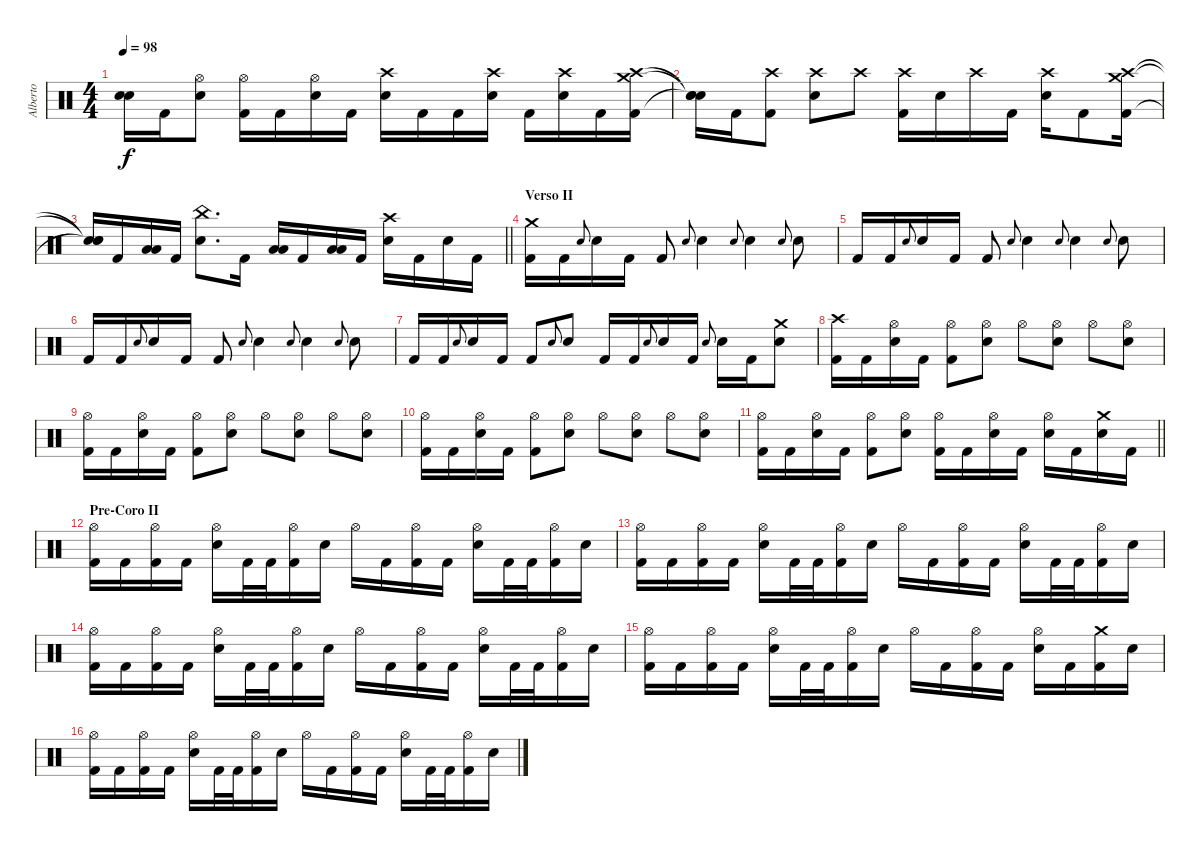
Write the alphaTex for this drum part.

\track ("Alberto" "Alberto") {instrument percussion}
\staff
\articulation defaults
\ts (4 4)
\tempo 98
\clef neutral
\ks c
("Snare (hit)"{t} "Snare (hit)"{t}).16{dy f} "Kick (hit) 2".16 ("Hi-Hat (open)" "Electric Snare (hit)").8 ("Hi-Hat (open)" "Kick (hit) 2").16 "Kick (hit) 2".16 ("Hi-Hat (open)" "Electric Snare (hit)").16 "Kick (hit) 2".16 ("Crash high (hit)" "Electric Snare (hit)").16 "Kick (hit) 2".16 "Kick (hit) 2".16 ("Crash high (hit)" "Electric Snare (hit)").16 "Kick (hit) 2".16 ("Crash high (hit)" "Electric Snare (hit)").16 "Kick (hit) 2".16 ("Crash medium (hit)" "Crash high (hit)" "Kick (hit) 2").16 |
("Snare (hit)"{t} "Snare (hit)"{t} "Snare (hit)"{t}).16 "Kick (hit) 2".16 ("Crash high (hit)" "Kick (hit) 2").8 ("Crash high (hit)" "Electric Snare (hit)").8 "Crash high (hit)".8 ("Crash high (hit)" "Kick (hit) 2").16 "Electric Snare (hit)".16 "Crash high (hit)".16 "Kick (hit) 2".16 ("Crash high (hit)" "Electric Snare (hit)").16 "Kick (hit) 2".8 ("Crash medium (hit)" "Crash high (hit)" "Kick (hit) 2").16 |
\barLineRight lightlight
("Snare (hit)"{t} "Snare (hit)"{t} "Snare (hit)"{t}).16 "Kick (hit) 2".16 ("Low Tom (hit)" "Low Floor Tom (hit)").16 "Kick (hit) 2".16 ("China (hit)" "Electric Snare (hit)").8{d} "Kick (hit) 2".16 ("Low Tom (hit)" "Low Floor Tom (hit)").16 "Kick (hit) 2".16 ("Low Tom (hit)" "Low Floor Tom (hit)").16 "Kick (hit) 2".16 ("Crash high (hit)" "Electric Snare (hit)").16 "Kick (hit) 2".16 "Electric Snare (hit)".16 "Kick (hit) 2".16 |
\section ("" "Verso II")
("Crash medium (hit)" "Kick (hit) 2").16 "Kick (hit) 2".16 "Electric Snare (hit)".8{gr onbeat} "Electric Snare (hit)".16 "Kick (hit) 2".16 "Kick (hit) 2".8 "Electric Snare (hit)".8{gr onbeat} "Electric Snare (hit)".4 "Electric Snare (hit)".8{gr onbeat} "Electric Snare (hit)".4 "Electric Snare (hit)".8{gr onbeat} "Electric Snare (hit)".8 |
"Kick (hit) 2".16 "Kick (hit) 2".16 "Electric Snare (hit)".8{gr onbeat} "Electric Snare (hit)".16 "Kick (hit) 2".16 "Kick (hit) 2".8 "Electric Snare (hit)".8{gr onbeat} "Electric Snare (hit)".4 "Electric Snare (hit)".8{gr onbeat} "Electric Snare (hit)".4 "Electric Snare (hit)".8{gr onbeat} "Electric Snare (hit)".8 |
"Kick (hit) 2".16 "Kick (hit) 2".16 "Electric Snare (hit)".8{gr onbeat} "Electric Snare (hit)".16 "Kick (hit) 2".16 "Kick (hit) 2".8 "Electric Snare (hit)".8{gr onbeat} "Electric Snare (hit)".4 "Electric Snare (hit)".8{gr onbeat} "Electric Snare (hit)".4 "Electric Snare (hit)".8{gr onbeat} "Electric Snare (hit)".8 |
"Kick (hit) 2".16 "Kick (hit) 2".16 "Electric Snare (hit)".8{gr onbeat} "Electric Snare (hit)".16 "Kick (hit) 2".16 "Kick (hit) 2".8 "Electric Snare (hit)".8{gr onbeat} "Electric Snare (hit)".8 "Kick (hit) 2".16 "Kick (hit) 2".16 "Electric Snare (hit)".8{gr onbeat} "Electric Snare (hit)".16 "Kick (hit) 2".16 "Electric Snare (hit)".8{gr onbeat} "Electric Snare (hit)".16 "Kick (hit) 2".16 ("Crash medium (hit)" "Electric Snare (hit)").8 |
("Crash high (hit)" "Kick (hit) 2").16 "Kick (hit) 2".16 ("Hi-Hat (open)" "Electric Snare (hit)").16 "Kick (hit) 2".16 ("Hi-Hat (open)" "Kick (hit) 2").8 ("Hi-Hat (open)" "Electric Snare (hit)").8 "Hi-Hat (open)".8 ("Hi-Hat (open)" "Electric Snare (hit)").8 "Hi-Hat (open)".8 ("Hi-Hat (open)" "Electric Snare (hit)").8 |
("Hi-Hat (open)" "Kick (hit) 2").16 "Kick (hit) 2".16 ("Hi-Hat (open)" "Electric Snare (hit)").16 "Kick (hit) 2".16 ("Hi-Hat (open)" "Kick (hit) 2").8 ("Hi-Hat (open)" "Electric Snare (hit)").8 "Hi-Hat (open)".8 ("Hi-Hat (open)" "Electric Snare (hit)").8 "Hi-Hat (open)".8 ("Hi-Hat (open)" "Electric Snare (hit)").8 |
("Hi-Hat (open)" "Kick (hit) 2").16 "Kick (hit) 2".16 ("Hi-Hat (open)" "Electric Snare (hit)").16 "Kick (hit) 2".16 ("Hi-Hat (open)" "Kick (hit) 2").8 ("Hi-Hat (open)" "Electric Snare (hit)").8 "Hi-Hat (open)".8 ("Hi-Hat (open)" "Electric Snare (hit)").8 "Hi-Hat (open)".8 ("Hi-Hat (open)" "Electric Snare (hit)").8 |
\barLineRight lightlight
("Hi-Hat (open)" "Kick (hit) 2").16 "Kick (hit) 2".16 ("Hi-Hat (open)" "Electric Snare (hit)").16 "Kick (hit) 2".16 ("Hi-Hat (open)" "Kick (hit) 2").8 ("Hi-Hat (open)" "Electric Snare (hit)").8 ("Hi-Hat (open)" "Kick (hit) 2").16 "Kick (hit) 2".16 ("Hi-Hat (open)" "Electric Snare (hit)").16 "Kick (hit) 2".16 ("Hi-Hat (open)" "Electric Snare (hit)").16 "Kick (hit) 2".16 ("Crash medium (hit)" "Electric Snare (hit)").16 "Kick (hit) 2".16 |
\section ("" "Pre-Coro II")
("Hi-Hat (open)" "Kick (hit) 2").16 "Kick (hit) 2".16 ("Hi-Hat (open)" "Kick (hit) 2").16 "Kick (hit) 2".16 ("Hi-Hat (open)" "Electric Snare (hit)").16 "Kick (hit) 2".32 "Kick (hit) 2".32 ("Hi-Hat (open)" "Kick (hit) 2").16 "Electric Snare (hit)".16 "Hi-Hat (open)".16 "Kick (hit) 2".16 ("Hi-Hat (open)" "Kick (hit) 2").16 "Kick (hit) 2".16 ("Hi-Hat (open)" "Electric Snare (hit)").16 "Kick (hit) 2".32 "Kick (hit) 2".32 ("Hi-Hat (open)" "Kick (hit) 2").16 "Electric Snare (hit)".16 |
("Hi-Hat (open)" "Kick (hit) 2").16 "Kick (hit) 2".16 ("Hi-Hat (open)" "Kick (hit) 2").16 "Kick (hit) 2".16 ("Hi-Hat (open)" "Electric Snare (hit)").16 "Kick (hit) 2".32 "Kick (hit) 2".32 ("Hi-Hat (open)" "Kick (hit) 2").16 "Electric Snare (hit)".16 "Hi-Hat (open)".16 "Kick (hit) 2".16 ("Hi-Hat (open)" "Kick (hit) 2").16 "Kick (hit) 2".16 ("Hi-Hat (open)" "Electric Snare (hit)").16 "Kick (hit) 2".32 "Kick (hit) 2".32 ("Hi-Hat (open)" "Kick (hit) 2").16 "Electric Snare (hit)".16 |
("Hi-Hat (open)" "Kick (hit) 2").16 "Kick (hit) 2".16 ("Hi-Hat (open)" "Kick (hit) 2").16 "Kick (hit) 2".16 ("Hi-Hat (open)" "Electric Snare (hit)").16 "Kick (hit) 2".32 "Kick (hit) 2".32 ("Hi-Hat (open)" "Kick (hit) 2").16 "Electric Snare (hit)".16 "Hi-Hat (open)".16 "Kick (hit) 2".16 ("Hi-Hat (open)" "Kick (hit) 2").16 "Kick (hit) 2".16 ("Hi-Hat (open)" "Electric Snare (hit)").16 "Kick (hit) 2".32 "Kick (hit) 2".32 ("Hi-Hat (open)" "Kick (hit) 2").16 "Electric Snare (hit)".16 |
("Hi-Hat (open)" "Kick (hit) 2").16 "Kick (hit) 2".16 ("Hi-Hat (open)" "Kick (hit) 2").16 "Kick (hit) 2".16 ("Hi-Hat (open)" "Electric Snare (hit)").16 "Kick (hit) 2".32 "Kick (hit) 2".32 ("Hi-Hat (open)" "Kick (hit) 2").16 "Electric Snare (hit)".16 "Hi-Hat (open)".16 "Kick (hit) 2".16 ("Hi-Hat (open)" "Kick (hit) 2").16 "Kick (hit) 2".16 ("Hi-Hat (open)" "Electric Snare (hit)").16 "Kick (hit) 2".16 ("Crash medium (hit)" "Kick (hit) 2").16 "Electric Snare (hit)".16 |
("Hi-Hat (open)" "Kick (hit) 2").16 "Kick (hit) 2".16 ("Hi-Hat (open)" "Kick (hit) 2").16 "Kick (hit) 2".16 ("Hi-Hat (open)" "Electric Snare (hit)").16 "Kick (hit) 2".32 "Kick (hit) 2".32 ("Hi-Hat (open)" "Kick (hit) 2").16 "Electric Snare (hit)".16 "Hi-Hat (open)".16 "Kick (hit) 2".16 ("Hi-Hat (open)" "Kick (hit) 2").16 "Kick (hit) 2".16 ("Hi-Hat (open)" "Electric Snare (hit)").16 "Kick (hit) 2".32 "Kick (hit) 2".32 ("Hi-Hat (open)" "Kick (hit) 2").16 "Electric Snare (hit)".16
